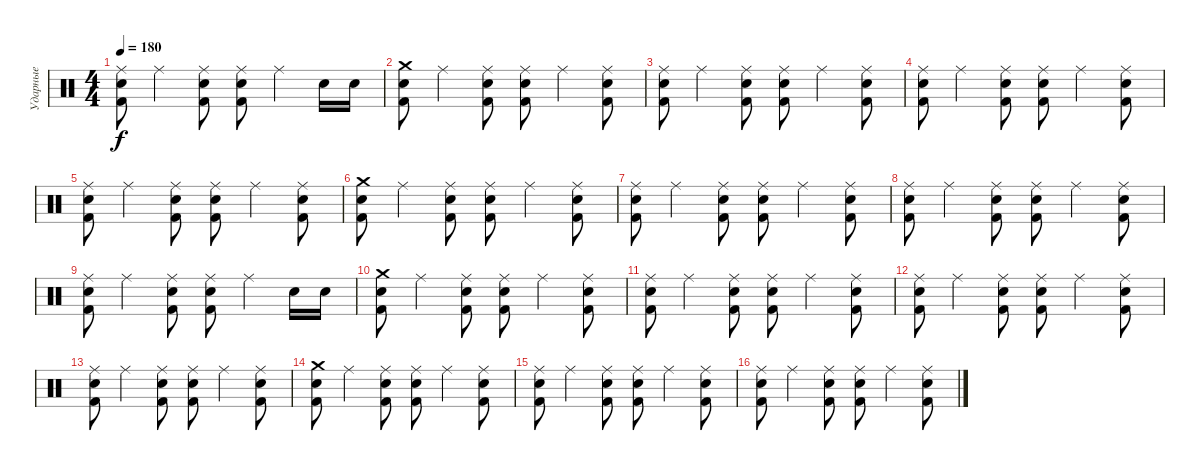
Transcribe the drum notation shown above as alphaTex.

\track ("Ударные" "Ударные") {instrument percussion}
\staff {score}
\articulation defaults
\ts (4 4)
\tempo 180
\clef neutral
\ks c
("Ride (middle)" "Electric Snare (hit)" "Kick (hit) 2").8{dy f} "Ride (middle)".4 ("Ride (middle)" "Electric Snare (hit)" "Kick (hit) 2").8 ("Ride (middle)" "Electric Snare (hit)" "Kick (hit) 2").8 "Ride (middle)".4 "Electric Snare (hit)".16 "Electric Snare (hit)".16 |
("Crash medium (hit)" "Electric Snare (hit)" "Kick (hit) 2").8 "Ride (middle)".4 ("Ride (middle)" "Electric Snare (hit)" "Kick (hit) 2").8 ("Ride (middle)" "Electric Snare (hit)" "Kick (hit) 2").8 "Ride (middle)".4 ("Ride (middle)" "Electric Snare (hit)" "Kick (hit) 2").8 |
("Ride (middle)" "Electric Snare (hit)" "Kick (hit) 2").8 "Ride (middle)".4 ("Ride (middle)" "Electric Snare (hit)" "Kick (hit) 2").8 ("Ride (middle)" "Electric Snare (hit)" "Kick (hit) 2").8 "Ride (middle)".4 ("Ride (middle)" "Electric Snare (hit)" "Kick (hit) 2").8 |
("Ride (middle)" "Electric Snare (hit)" "Kick (hit) 2").8 "Ride (middle)".4 ("Ride (middle)" "Electric Snare (hit)" "Kick (hit) 2").8 ("Ride (middle)" "Electric Snare (hit)" "Kick (hit) 2").8 "Ride (middle)".4 ("Ride (middle)" "Electric Snare (hit)" "Kick (hit) 2").8 |
("Ride (middle)" "Electric Snare (hit)" "Kick (hit) 2").8 "Ride (middle)".4 ("Ride (middle)" "Electric Snare (hit)" "Kick (hit) 2").8 ("Ride (middle)" "Electric Snare (hit)" "Kick (hit) 2").8 "Ride (middle)".4 ("Ride (middle)" "Electric Snare (hit)" "Kick (hit) 2").8 |
("Crash medium (hit)" "Electric Snare (hit)" "Kick (hit) 2").8 "Ride (middle)".4 ("Ride (middle)" "Electric Snare (hit)" "Kick (hit) 2").8 ("Ride (middle)" "Electric Snare (hit)" "Kick (hit) 2").8 "Ride (middle)".4 ("Ride (middle)" "Electric Snare (hit)" "Kick (hit) 2").8 |
("Ride (middle)" "Electric Snare (hit)" "Kick (hit) 2").8 "Ride (middle)".4 ("Ride (middle)" "Electric Snare (hit)" "Kick (hit) 2").8 ("Ride (middle)" "Electric Snare (hit)" "Kick (hit) 2").8 "Ride (middle)".4 ("Ride (middle)" "Electric Snare (hit)" "Kick (hit) 2").8 |
("Ride (middle)" "Electric Snare (hit)" "Kick (hit) 2").8 "Ride (middle)".4 ("Ride (middle)" "Electric Snare (hit)" "Kick (hit) 2").8 ("Ride (middle)" "Electric Snare (hit)" "Kick (hit) 2").8 "Ride (middle)".4 ("Ride (middle)" "Electric Snare (hit)" "Kick (hit) 2").8 |
("Ride (middle)" "Electric Snare (hit)" "Kick (hit) 2").8 "Ride (middle)".4 ("Ride (middle)" "Electric Snare (hit)" "Kick (hit) 2").8 ("Ride (middle)" "Electric Snare (hit)" "Kick (hit) 2").8 "Ride (middle)".4 "Electric Snare (hit)".16 "Electric Snare (hit)".16 |
("Crash medium (hit)" "Electric Snare (hit)" "Kick (hit) 2").8 "Ride (middle)".4 ("Ride (middle)" "Electric Snare (hit)" "Kick (hit) 2").8 ("Ride (middle)" "Electric Snare (hit)" "Kick (hit) 2").8 "Ride (middle)".4 ("Ride (middle)" "Electric Snare (hit)" "Kick (hit) 2").8 |
("Ride (middle)" "Electric Snare (hit)" "Kick (hit) 2").8 "Ride (middle)".4 ("Ride (middle)" "Electric Snare (hit)" "Kick (hit) 2").8 ("Ride (middle)" "Electric Snare (hit)" "Kick (hit) 2").8 "Ride (middle)".4 ("Ride (middle)" "Electric Snare (hit)" "Kick (hit) 2").8 |
("Ride (middle)" "Electric Snare (hit)" "Kick (hit) 2").8 "Ride (middle)".4 ("Ride (middle)" "Electric Snare (hit)" "Kick (hit) 2").8 ("Ride (middle)" "Electric Snare (hit)" "Kick (hit) 2").8 "Ride (middle)".4 ("Ride (middle)" "Electric Snare (hit)" "Kick (hit) 2").8 |
("Ride (middle)" "Electric Snare (hit)" "Kick (hit) 2").8 "Ride (middle)".4 ("Ride (middle)" "Electric Snare (hit)" "Kick (hit) 2").8 ("Ride (middle)" "Electric Snare (hit)" "Kick (hit) 2").8 "Ride (middle)".4 ("Ride (middle)" "Electric Snare (hit)" "Kick (hit) 2").8 |
("Crash medium (hit)" "Electric Snare (hit)" "Kick (hit) 2").8 "Ride (middle)".4 ("Ride (middle)" "Electric Snare (hit)" "Kick (hit) 2").8 ("Ride (middle)" "Electric Snare (hit)" "Kick (hit) 2").8 "Ride (middle)".4 ("Ride (middle)" "Electric Snare (hit)" "Kick (hit) 2").8 |
("Ride (middle)" "Electric Snare (hit)" "Kick (hit) 2").8 "Ride (middle)".4 ("Ride (middle)" "Electric Snare (hit)" "Kick (hit) 2").8 ("Ride (middle)" "Electric Snare (hit)" "Kick (hit) 2").8 "Ride (middle)".4 ("Ride (middle)" "Electric Snare (hit)" "Kick (hit) 2").8 |
("Ride (middle)" "Electric Snare (hit)" "Kick (hit) 2").8 "Ride (middle)".4 ("Ride (middle)" "Electric Snare (hit)" "Kick (hit) 2").8 ("Ride (middle)" "Electric Snare (hit)" "Kick (hit) 2").8 "Ride (middle)".4 ("Ride (middle)" "Electric Snare (hit)" "Kick (hit) 2").8
